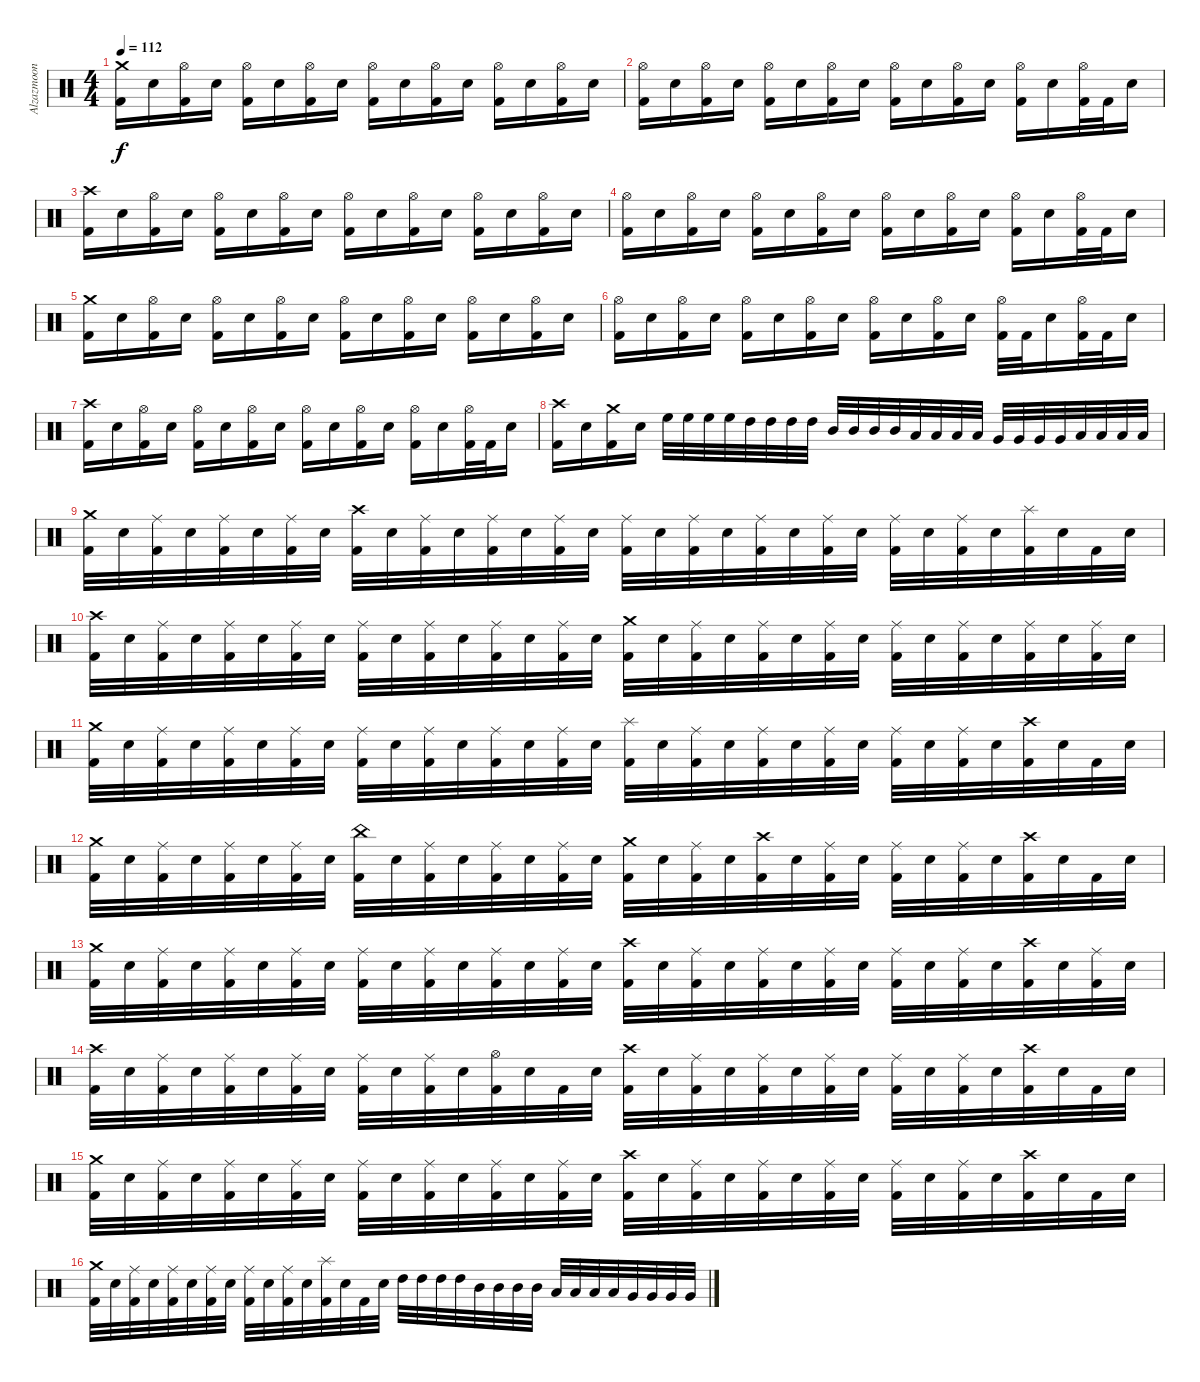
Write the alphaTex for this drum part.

\track ("Alzazmoon" "Alzazmoon") {instrument percussion}
\staff {score}
\articulation defaults
\ts (4 4)
\tempo 112
\clef neutral
\ks c
("Crash medium (hit)" "Kick (hit) 2").16{dy f} "Snare (hit) 2".16 ("Hi-Hat (open)" "Kick (hit) 2").16 "Snare (hit) 2".16 ("Hi-Hat (open)" "Kick (hit) 2").16 "Snare (hit) 2".16 ("Hi-Hat (open)" "Kick (hit) 2").16 "Snare (hit) 2".16 ("Hi-Hat (open)" "Kick (hit) 2").16 "Snare (hit) 2".16 ("Hi-Hat (open)" "Kick (hit) 2").16 "Snare (hit) 2".16 ("Hi-Hat (open)" "Kick (hit) 2").16 "Snare (hit) 2".16 ("Hi-Hat (open)" "Kick (hit) 2").16 "Snare (hit) 2".16 |
("Hi-Hat (open)" "Kick (hit) 2").16 "Snare (hit) 2".16 ("Hi-Hat (open)" "Kick (hit) 2").16 "Snare (hit) 2".16 ("Hi-Hat (open)" "Kick (hit) 2").16 "Snare (hit) 2".16 ("Hi-Hat (open)" "Kick (hit) 2").16 "Snare (hit) 2".16 ("Hi-Hat (open)" "Kick (hit) 2").16 "Snare (hit) 2".16 ("Hi-Hat (open)" "Kick (hit) 2").16 "Snare (hit) 2".16 ("Hi-Hat (open)" "Kick (hit) 2").16 "Snare (hit) 2".16 ("Hi-Hat (open)" "Kick (hit) 2").32 "Kick (hit) 2".32 "Snare (hit) 2".16 |
("Crash high (hit)" "Kick (hit) 2").16 "Snare (hit) 2".16 ("Hi-Hat (open)" "Kick (hit) 2").16 "Snare (hit) 2".16 ("Hi-Hat (open)" "Kick (hit) 2").16 "Snare (hit) 2".16 ("Hi-Hat (open)" "Kick (hit) 2").16 "Snare (hit) 2".16 ("Hi-Hat (open)" "Kick (hit) 2").16 "Snare (hit) 2".16 ("Hi-Hat (open)" "Kick (hit) 2").16 "Snare (hit) 2".16 ("Hi-Hat (open)" "Kick (hit) 2").16 "Snare (hit) 2".16 ("Hi-Hat (open)" "Kick (hit) 2").16 "Snare (hit) 2".16 |
("Hi-Hat (open)" "Kick (hit) 2").16 "Snare (hit) 2".16 ("Hi-Hat (open)" "Kick (hit) 2").16 "Snare (hit) 2".16 ("Hi-Hat (open)" "Kick (hit) 2").16 "Snare (hit) 2".16 ("Hi-Hat (open)" "Kick (hit) 2").16 "Snare (hit) 2".16 ("Hi-Hat (open)" "Kick (hit) 2").16 "Snare (hit) 2".16 ("Hi-Hat (open)" "Kick (hit) 2").16 "Snare (hit) 2".16 ("Hi-Hat (open)" "Kick (hit) 2").16 "Snare (hit) 2".16 ("Hi-Hat (open)" "Kick (hit) 2").32 "Kick (hit) 2".32 "Snare (hit) 2".16 |
("Crash medium (hit)" "Kick (hit) 2").16 "Snare (hit) 2".16 ("Hi-Hat (open)" "Kick (hit) 2").16 "Snare (hit) 2".16 ("Hi-Hat (open)" "Kick (hit) 2").16 "Snare (hit) 2".16 ("Hi-Hat (open)" "Kick (hit) 2").16 "Snare (hit) 2".16 ("Hi-Hat (open)" "Kick (hit) 2").16 "Snare (hit) 2".16 ("Hi-Hat (open)" "Kick (hit) 2").16 "Snare (hit) 2".16 ("Hi-Hat (open)" "Kick (hit) 2").16 "Snare (hit) 2".16 ("Hi-Hat (open)" "Kick (hit) 2").16 "Snare (hit) 2".16 |
("Hi-Hat (open)" "Kick (hit) 2").16 "Snare (hit) 2".16 ("Hi-Hat (open)" "Kick (hit) 2").16 "Snare (hit) 2".16 ("Hi-Hat (open)" "Kick (hit) 2").16 "Snare (hit) 2".16 ("Hi-Hat (open)" "Kick (hit) 2").16 "Snare (hit) 2".16 ("Hi-Hat (open)" "Kick (hit) 2").16 "Snare (hit) 2".16 ("Hi-Hat (open)" "Kick (hit) 2").16 "Snare (hit) 2".16 ("Hi-Hat (open)" "Kick (hit) 2").32 "Kick (hit) 2".32 "Snare (hit) 2".16 ("Hi-Hat (open)" "Kick (hit) 2").32 "Kick (hit) 2".32 "Snare (hit) 2".16 |
("Crash high (hit)" "Kick (hit) 2").16 "Snare (hit) 2".16 ("Hi-Hat (open)" "Kick (hit) 2").16 "Snare (hit) 2".16 ("Hi-Hat (open)" "Kick (hit) 2").16 "Snare (hit) 2".16 ("Hi-Hat (open)" "Kick (hit) 2").16 "Snare (hit) 2".16 ("Hi-Hat (open)" "Kick (hit) 2").16 "Snare (hit) 2".16 ("Hi-Hat (open)" "Kick (hit) 2").16 "Snare (hit) 2".16 ("Hi-Hat (open)" "Kick (hit) 2").16 "Snare (hit) 2".16 ("Hi-Hat (open)" "Kick (hit) 2").32 "Kick (hit) 2".32 "Snare (hit) 2".16 |
("Crash high (hit)" "Kick (hit) 2").16 "Snare (hit) 2".16 ("Crash medium (hit)" "Kick (hit) 2").16 "Snare (hit) 2".16 "High Floor Tom (hit)".32 "High Floor Tom (hit)".32 "High Floor Tom (hit)".32 "High Floor Tom (hit)".32 "High Tom (hit)".32 "High Tom (hit)".32 "High Tom (hit)".32 "High Tom (hit)".32 "Mid Tom (hit)".32 "Mid Tom (hit)".32 "Mid Tom (hit)".32 "Mid Tom (hit)".32 "Low Tom (hit)".32 "Low Tom (hit)".32 "Low Tom (hit)".32 "Low Tom (hit)".32 "Very Low Tom (hit)".32 "Very Low Tom (hit)".32 "Very Low Tom (hit)".32 "Very Low Tom (hit)".32 "Low Floor Tom (hit)".32 "Low Floor Tom (hit)".32 "Low Floor Tom (hit)".32 "Low Floor Tom (hit)".32 |
("Crash medium (hit)" "Kick (hit) 2").32 "Snare (hit) 2".32 ("Ride (middle)" "Kick (hit) 2").32 "Snare (hit) 2".32 ("Ride (middle)" "Kick (hit) 2").32 "Snare (hit) 2".32 ("Ride (middle)" "Kick (hit) 2").32 "Snare (hit) 2".32 ("Crash high (hit)" "Kick (hit) 2").32 "Snare (hit) 2".32 ("Ride (middle)" "Kick (hit) 2").32 "Snare (hit) 2".32 ("Ride (middle)" "Kick (hit) 2").32 "Snare (hit) 2".32 ("Ride (middle)" "Kick (hit) 2").32 "Snare (hit) 2".32 ("Ride (middle)" "Kick (hit) 2").32 "Snare (hit) 2".32 ("Ride (middle)" "Kick (hit) 2").32 "Snare (hit) 2".32 ("Ride (middle)" "Kick (hit) 2").32 "Snare (hit) 2".32 ("Ride (middle)" "Kick (hit) 2").32 "Snare (hit) 2".32 ("Ride (middle)" "Kick (hit) 2").32 "Snare (hit) 2".32 ("Ride (middle)" "Kick (hit) 2").32 "Snare (hit) 2".32 ("Splash (hit)" "Kick (hit) 2").32 "Snare (hit) 2".32 "Kick (hit) 2".32 "Snare (hit) 2".32 |
("Crash high (hit)" "Kick (hit) 2").32 "Snare (hit) 2".32 ("Ride (middle)" "Kick (hit) 2").32 "Snare (hit) 2".32 ("Ride (middle)" "Kick (hit) 2").32 "Snare (hit) 2".32 ("Ride (middle)" "Kick (hit) 2").32 "Snare (hit) 2".32 ("Ride (middle)" "Kick (hit) 2").32 "Snare (hit) 2".32 ("Ride (middle)" "Kick (hit) 2").32 "Snare (hit) 2".32 ("Ride (middle)" "Kick (hit) 2").32 "Snare (hit) 2".32 ("Ride (middle)" "Kick (hit) 2").32 "Snare (hit) 2".32 ("Crash medium (hit)" "Kick (hit) 2").32 "Snare (hit) 2".32 ("Ride (middle)" "Kick (hit) 2").32 "Snare (hit) 2".32 ("Ride (middle)" "Kick (hit) 2").32 "Snare (hit) 2".32 ("Ride (middle)" "Kick (hit) 2").32 "Snare (hit) 2".32 ("Ride (middle)" "Kick (hit) 2").32 "Snare (hit) 2".32 ("Ride (middle)" "Kick (hit) 2").32 "Snare (hit) 2".32 ("Ride (middle)" "Kick (hit) 2").32 "Snare (hit) 2".32 ("Ride (middle)" "Kick (hit) 2").32 "Snare (hit) 2".32 |
("Crash medium (hit)" "Kick (hit) 2").32 "Snare (hit) 2".32 ("Ride (middle)" "Kick (hit) 2").32 "Snare (hit) 2".32 ("Ride (middle)" "Kick (hit) 2").32 "Snare (hit) 2".32 ("Ride (middle)" "Kick (hit) 2").32 "Snare (hit) 2".32 ("Ride (middle)" "Kick (hit) 2").32 "Snare (hit) 2".32 ("Ride (middle)" "Kick (hit) 2").32 "Snare (hit) 2".32 ("Ride (middle)" "Kick (hit) 2").32 "Snare (hit) 2".32 ("Ride (middle)" "Kick (hit) 2").32 "Snare (hit) 2".32 ("Splash (hit)" "Kick (hit) 2").32 "Snare (hit) 2".32 ("Ride (middle)" "Kick (hit) 2").32 "Snare (hit) 2".32 ("Ride (middle)" "Kick (hit) 2").32 "Snare (hit) 2".32 ("Ride (middle)" "Kick (hit) 2").32 "Snare (hit) 2".32 ("Ride (middle)" "Kick (hit) 2").32 "Snare (hit) 2".32 ("Ride (middle)" "Kick (hit) 2").32 "Snare (hit) 2".32 ("Crash high (hit)" "Kick (hit) 2").32 "Snare (hit) 2".32 "Kick (hit) 2".32 "Snare (hit) 2".32 |
("Crash medium (hit)" "Kick (hit) 2").32 "Snare (hit) 2".32 ("Ride (middle)" "Kick (hit) 2").32 "Snare (hit) 2".32 ("Ride (middle)" "Kick (hit) 2").32 "Snare (hit) 2".32 ("Ride (middle)" "Kick (hit) 2").32 "Snare (hit) 2".32 ("China (hit)" "Kick (hit) 2").32 "Snare (hit) 2".32 ("Ride (middle)" "Kick (hit) 2").32 "Snare (hit) 2".32 ("Ride (middle)" "Kick (hit) 2").32 "Snare (hit) 2".32 ("Ride (middle)" "Kick (hit) 2").32 "Snare (hit) 2".32 ("Crash medium (hit)" "Kick (hit) 2").32 "Snare (hit) 2".32 ("Ride (middle)" "Kick (hit) 2").32 "Snare (hit) 2".32 ("Crash high (hit)" "Kick (hit) 2").32 "Snare (hit) 2".32 ("Ride (middle)" "Kick (hit) 2").32 "Snare (hit) 2".32 ("Ride (middle)" "Kick (hit) 2").32 "Snare (hit) 2".32 ("Ride (middle)" "Kick (hit) 2").32 "Snare (hit) 2".32 ("Crash high (hit)" "Kick (hit) 2").32 "Snare (hit) 2".32 "Kick (hit) 2".32 "Snare (hit) 2".32 |
("Crash medium (hit)" "Kick (hit) 2").32 "Snare (hit) 2".32 ("Ride (middle)" "Kick (hit) 2").32 "Snare (hit) 2".32 ("Ride (middle)" "Kick (hit) 2").32 "Snare (hit) 2".32 ("Ride (middle)" "Kick (hit) 2").32 "Snare (hit) 2".32 ("Ride (middle)" "Kick (hit) 2").32 "Snare (hit) 2".32 ("Ride (middle)" "Kick (hit) 2").32 "Snare (hit) 2".32 ("Ride (middle)" "Kick (hit) 2").32 "Snare (hit) 2".32 ("Ride (middle)" "Kick (hit) 2").32 "Snare (hit) 2".32 ("Crash high (hit)" "Kick (hit) 2").32 "Snare (hit) 2".32 ("Ride (middle)" "Kick (hit) 2").32 "Snare (hit) 2".32 ("Ride (middle)" "Kick (hit) 2").32 "Snare (hit) 2".32 ("Ride (middle)" "Kick (hit) 2").32 "Snare (hit) 2".32 ("Ride (middle)" "Kick (hit) 2").32 "Snare (hit) 2".32 ("Ride (middle)" "Kick (hit) 2").32 "Snare (hit) 2".32 ("Crash high (hit)" "Kick (hit) 2").32 "Snare (hit) 2".32 ("Ride (middle)" "Kick (hit) 2").32 "Snare (hit) 2".32 |
("Crash high (hit)" "Kick (hit) 2").32 "Snare (hit) 2".32 ("Ride (middle)" "Kick (hit) 2").32 "Snare (hit) 2".32 ("Ride (middle)" "Kick (hit) 2").32 "Snare (hit) 2".32 ("Ride (middle)" "Kick (hit) 2").32 "Snare (hit) 2".32 ("Ride (middle)" "Kick (hit) 2").32 "Snare (hit) 2".32 ("Ride (middle)" "Kick (hit) 2").32 "Snare (hit) 2".32 ("Hi-Hat (open)" "Kick (hit) 2").32 "Snare (hit) 2".32 "Kick (hit) 2".32 "Snare (hit) 2".32 ("Crash high (hit)" "Kick (hit) 2").32 "Snare (hit) 2".32 ("Ride (middle)" "Kick (hit) 2").32 "Snare (hit) 2".32 ("Ride (middle)" "Kick (hit) 2").32 "Snare (hit) 2".32 ("Ride (middle)" "Kick (hit) 2").32 "Snare (hit) 2".32 ("Ride (middle)" "Kick (hit) 2").32 "Snare (hit) 2".32 ("Ride (middle)" "Kick (hit) 2").32 "Snare (hit) 2".32 ("Crash high (hit)" "Kick (hit) 2").32 "Snare (hit) 2".32 "Kick (hit) 2".32 "Snare (hit) 2".32 |
("Crash medium (hit)" "Kick (hit) 2").32 "Snare (hit) 2".32 ("Ride (middle)" "Kick (hit) 2").32 "Snare (hit) 2".32 ("Ride (middle)" "Kick (hit) 2").32 "Snare (hit) 2".32 ("Ride (middle)" "Kick (hit) 2").32 "Snare (hit) 2".32 ("Ride (middle)" "Kick (hit) 2").32 "Snare (hit) 2".32 ("Ride (middle)" "Kick (hit) 2").32 "Snare (hit) 2".32 ("Ride (middle)" "Kick (hit) 2").32 "Snare (hit) 2".32 ("Ride (middle)" "Kick (hit) 2").32 "Snare (hit) 2".32 ("Crash high (hit)" "Kick (hit) 2").32 "Snare (hit) 2".32 ("Ride (middle)" "Kick (hit) 2").32 "Snare (hit) 2".32 ("Ride (middle)" "Kick (hit) 2").32 "Snare (hit) 2".32 ("Ride (middle)" "Kick (hit) 2").32 "Snare (hit) 2".32 ("Ride (middle)" "Kick (hit) 2").32 "Snare (hit) 2".32 ("Ride (middle)" "Kick (hit) 2").32 "Snare (hit) 2".32 ("Crash high (hit)" "Kick (hit) 2").32 "Snare (hit) 2".32 "Kick (hit) 2".32 "Snare (hit) 2".32 |
("Crash medium (hit)" "Kick (hit) 2").32 "Snare (hit) 2".32 ("Ride (middle)" "Kick (hit) 2").32 "Snare (hit) 2".32 ("Ride (middle)" "Kick (hit) 2").32 "Snare (hit) 2".32 ("Ride (middle)" "Kick (hit) 2").32 "Snare (hit) 2".32 ("Ride (middle)" "Kick (hit) 2").32 "Snare (hit) 2".32 ("Ride (middle)" "Kick (hit) 2").32 "Snare (hit) 2".32 ("Splash (hit)" "Kick (hit) 2").32 "Snare (hit) 2".32 "Kick (hit) 2".32 "Snare (hit) 2".32 "High Tom (hit)".32 "High Tom (hit)".32 "High Tom (hit)".32 "High Tom (hit)".32 "Mid Tom (hit)".32 "Mid Tom (hit)".32 "Mid Tom (hit)".32 "Mid Tom (hit)".32 "Low Tom (hit)".32 "Low Tom (hit)".32 "Low Tom (hit)".32 "Low Tom (hit)".32 "Very Low Tom (hit)".32 "Very Low Tom (hit)".32 "Very Low Tom (hit)".32 "Very Low Tom (hit)".32
